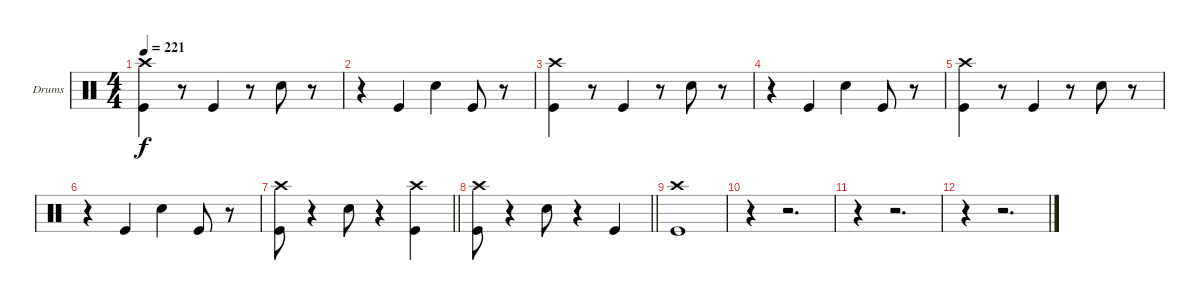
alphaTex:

\bracketExtendMode groupsimilarinstruments
\firstSystemTrackNameOrientation horizontal
\otherSystemsTrackNameOrientation horizontal
\track ("Drumkit" "Drums") {instrument percussion}
\staff {score}
\articulation defaults
\ts (4 4)
\tempo 221
\clef neutral
\ks c
("Crash high (hit)" "Kick (hit)").4{dy f} r.8 "Kick (hit)".4 r.8 "Snare (hit) 2".8 r.8 |
r.4 "Kick (hit)".4 "Snare (hit) 2".4 "Kick (hit)".8 r.8 |
("Crash high (hit)" "Kick (hit)").4 r.8 "Kick (hit)".4 r.8 "Snare (hit) 2".8 r.8 |
r.4 "Kick (hit)".4 "Snare (hit) 2".4 "Kick (hit)".8 r.8 |
("Crash high (hit)" "Kick (hit)").4 r.8 "Kick (hit)".4 r.8 "Snare (hit) 2".8 r.8 |
r.4 "Kick (hit)".4 "Snare (hit) 2".4 "Kick (hit)".8 r.8 |
\barLineRight lightlight
("Crash high (hit)" "Kick (hit)").8 r.4 "Snare (hit) 2".8 r.4 ("Crash high (hit)" "Kick (hit)").4 |
\barLineRight lightlight
("Crash high (hit)" "Kick (hit)").8 r.4 "Snare (hit) 2".8 r.4 "Kick (hit)".4 |
("Crash high (hit)" "Kick (hit)").1 |
r.4 r.2{d} |
r.4 r.2{d} |
r.4 r.2{d}
